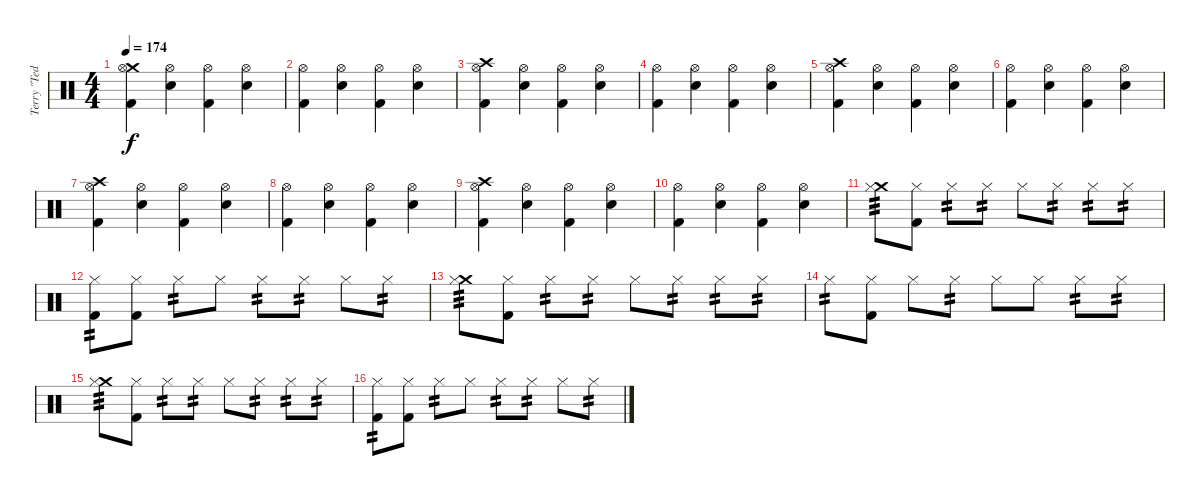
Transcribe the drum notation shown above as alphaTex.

\track ("Terry \"Ted\" Bozzio" "Terry \"Ted") {instrument percussion}
\staff {score}
\articulation defaults
\ts (4 4)
\tempo 174
\clef neutral
\ks c
("Crash medium (hit)" "Hi-Hat (open)" "Kick (hit) 2").4{dy f} ("Hi-Hat (open)" "Electric Snare (hit)").4 ("Hi-Hat (open)" "Kick (hit) 2").4 ("Hi-Hat (open)" "Electric Snare (hit)").4 |
("Hi-Hat (open)" "Kick (hit) 2").4 ("Hi-Hat (open)" "Electric Snare (hit)").4 ("Hi-Hat (open)" "Kick (hit) 2").4 ("Hi-Hat (open)" "Electric Snare (hit)").4 |
("Crash high (hit)" "Hi-Hat (open)" "Kick (hit) 2").4 ("Hi-Hat (open)" "Electric Snare (hit)").4 ("Hi-Hat (open)" "Kick (hit) 2").4 ("Hi-Hat (open)" "Electric Snare (hit)").4 |
("Hi-Hat (open)" "Kick (hit) 2").4 ("Hi-Hat (open)" "Electric Snare (hit)").4 ("Hi-Hat (open)" "Kick (hit) 2").4 ("Hi-Hat (open)" "Electric Snare (hit)").4 |
("Crash high (hit)" "Hi-Hat (open)" "Kick (hit) 2").4 ("Hi-Hat (open)" "Electric Snare (hit)").4 ("Hi-Hat (open)" "Kick (hit) 2").4 ("Hi-Hat (open)" "Electric Snare (hit)").4 |
("Hi-Hat (open)" "Kick (hit) 2").4 ("Hi-Hat (open)" "Electric Snare (hit)").4 ("Hi-Hat (open)" "Kick (hit) 2").4 ("Hi-Hat (open)" "Electric Snare (hit)").4 |
("Crash high (hit)" "Hi-Hat (open)" "Kick (hit) 2").4 ("Hi-Hat (open)" "Electric Snare (hit)").4 ("Hi-Hat (open)" "Kick (hit) 2").4 ("Hi-Hat (open)" "Electric Snare (hit)").4 |
("Hi-Hat (open)" "Kick (hit) 2").4 ("Hi-Hat (open)" "Electric Snare (hit)").4 ("Hi-Hat (open)" "Kick (hit) 2").4 ("Hi-Hat (open)" "Electric Snare (hit)").4 |
("Crash high (hit)" "Hi-Hat (open)" "Kick (hit) 2").4 ("Hi-Hat (open)" "Electric Snare (hit)").4 ("Hi-Hat (open)" "Kick (hit) 2").4 ("Hi-Hat (open)" "Electric Snare (hit)").4 |
("Hi-Hat (open)" "Kick (hit) 2").4 ("Hi-Hat (open)" "Electric Snare (hit)").4 ("Hi-Hat (open)" "Kick (hit) 2").4 ("Hi-Hat (open)" "Electric Snare (hit)").4 |
("Crash medium (hit)" "Hi-Hat (closed)").8{tp 3} ("Hi-Hat (closed)" "Kick (hit) 2").8 "Hi-Hat (closed)".8{tp 2} "Hi-Hat (closed)".8{tp 2} "Hi-Hat (closed)".8 "Hi-Hat (closed)".8{tp 2} "Hi-Hat (closed)".8{tp 2} "Hi-Hat (closed)".8{tp 2} |
("Hi-Hat (closed)" "Kick (hit) 2").8{tp 2} ("Hi-Hat (closed)" "Kick (hit) 2").8 "Hi-Hat (closed)".8{tp 2} "Hi-Hat (closed)".8 "Hi-Hat (closed)".8{tp 2} "Hi-Hat (closed)".8{tp 2} "Hi-Hat (closed)".8 "Hi-Hat (closed)".8{tp 2} |
("Crash medium (hit)" "Hi-Hat (closed)").8{tp 3} ("Hi-Hat (closed)" "Kick (hit) 2").8 "Hi-Hat (closed)".8{tp 2} "Hi-Hat (closed)".8{tp 2} "Hi-Hat (closed)".8 "Hi-Hat (closed)".8{tp 2} "Hi-Hat (closed)".8{tp 2} "Hi-Hat (closed)".8{tp 2} |
"Hi-Hat (closed)".8{tp 2} ("Hi-Hat (closed)" "Kick (hit) 2").8 "Hi-Hat (closed)".8 "Hi-Hat (closed)".8{tp 2} "Hi-Hat (closed)".8 "Hi-Hat (closed)".8 "Hi-Hat (closed)".8{tp 2} "Hi-Hat (closed)".8{tp 2} |
("Crash medium (hit)" "Hi-Hat (closed)").8{tp 3} ("Hi-Hat (closed)" "Kick (hit) 2").8 "Hi-Hat (closed)".8{tp 2} "Hi-Hat (closed)".8{tp 2} "Hi-Hat (closed)".8 "Hi-Hat (closed)".8{tp 2} "Hi-Hat (closed)".8{tp 2} "Hi-Hat (closed)".8{tp 2} |
("Hi-Hat (closed)" "Kick (hit) 2").8{tp 2} ("Hi-Hat (closed)" "Kick (hit) 2").8 "Hi-Hat (closed)".8{tp 2} "Hi-Hat (closed)".8 "Hi-Hat (closed)".8{tp 2} "Hi-Hat (closed)".8{tp 2} "Hi-Hat (closed)".8 "Hi-Hat (closed)".8{tp 2}
